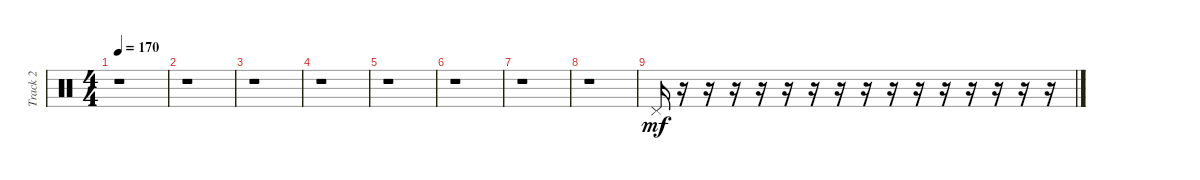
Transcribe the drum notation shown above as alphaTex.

\track ("Track 2" "Track 2") {instrument percussion}
\staff {score}
\articulation defaults
\ts (4 4)
\tempo 170
\clef neutral
\ks c
r.1{dy p} |
r.1 |
r.1 |
r.1 |
r.1 |
r.1 |
r.1 |
r.1 |
"Pedal Hi-Hat (hit)".16{dy mf} r.16 r.16 r.16 r.16 r.16 r.16 r.16 r.16 r.16 r.16 r.16 r.16 r.16 r.16 r.16
